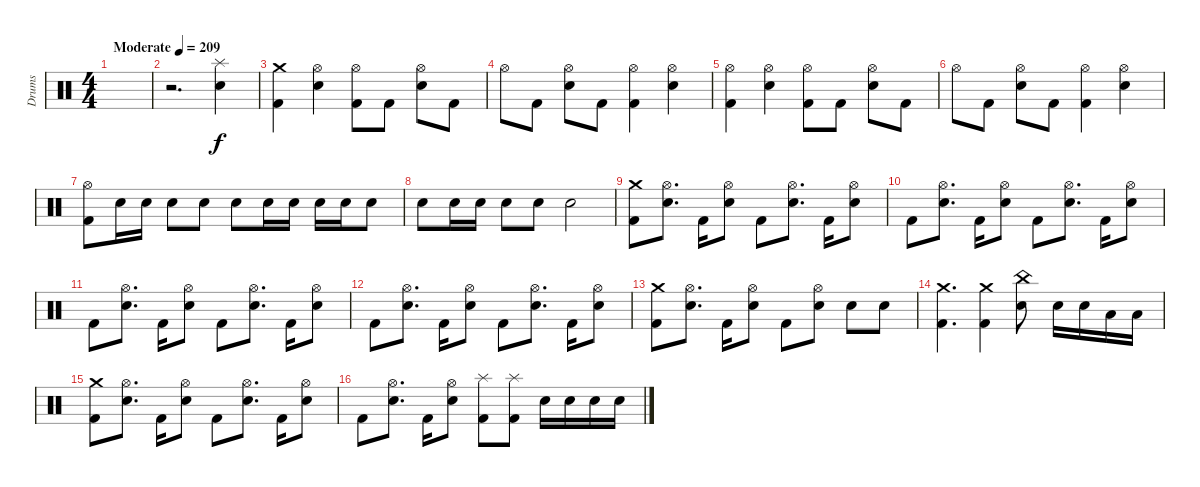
\track ("Drums" "Drums") {instrument percussion}
\staff {score}
\articulation defaults
\ts (4 4)
\tempo (209 "Moderate")
\clef neutral
\ks c
|
r.2{d} ("Splash (hit)" "Electric Snare (hit)").4 |
("Crash medium (hit)" "Kick (hit) 2").4 ("Hi-Hat (open)" "Electric Snare (hit)").4 ("Hi-Hat (open)" "Kick (hit) 2").8 "Kick (hit) 2".8 ("Hi-Hat (open)" "Electric Snare (hit)").8 "Kick (hit) 2".8 |
"Hi-Hat (open)".8 "Kick (hit) 2".8 ("Hi-Hat (open)" "Electric Snare (hit)").8 "Kick (hit) 2".8 ("Hi-Hat (open)" "Kick (hit) 2").4 ("Hi-Hat (open)" "Electric Snare (hit)").4 |
("Hi-Hat (open)" "Kick (hit) 2").4 ("Hi-Hat (open)" "Electric Snare (hit)").4 ("Hi-Hat (open)" "Kick (hit) 2").8 "Kick (hit) 2".8 ("Hi-Hat (open)" "Electric Snare (hit)").8 "Kick (hit) 2".8 |
"Hi-Hat (open)".8 "Kick (hit) 2".8 ("Hi-Hat (open)" "Electric Snare (hit)").8 "Kick (hit) 2".8 ("Hi-Hat (open)" "Kick (hit) 2").4 ("Hi-Hat (open)" "Electric Snare (hit)").4 |
("Hi-Hat (open)" "Kick (hit) 2").8 "Electric Snare (hit)".16 "Electric Snare (hit)".16 "Electric Snare (hit)".8 "Electric Snare (hit)".8 "Electric Snare (hit)".8 "Electric Snare (hit)".16 "Electric Snare (hit)".16 "Electric Snare (hit)".16 "Electric Snare (hit)".16 "Electric Snare (hit)".8 |
"Electric Snare (hit)".8 "Electric Snare (hit)".16 "Electric Snare (hit)".16 "Electric Snare (hit)".8 "Electric Snare (hit)".8 "Electric Snare (hit)".2 |
("Crash medium (hit)" "Kick (hit) 2").8 ("Hi-Hat (open)" "Electric Snare (hit)").8{d} "Kick (hit) 2".16 ("Hi-Hat (open)" "Electric Snare (hit)").8 "Kick (hit) 2".8 ("Hi-Hat (open)" "Electric Snare (hit)").8{d} "Kick (hit) 2".16 ("Hi-Hat (open)" "Electric Snare (hit)").8 |
"Kick (hit) 2".8 ("Hi-Hat (open)" "Electric Snare (hit)").8{d} "Kick (hit) 2".16 ("Hi-Hat (open)" "Electric Snare (hit)").8 "Kick (hit) 2".8 ("Hi-Hat (open)" "Electric Snare (hit)").8{d} "Kick (hit) 2".16 ("Hi-Hat (open)" "Electric Snare (hit)").8 |
"Kick (hit) 2".8 ("Hi-Hat (open)" "Electric Snare (hit)").8{d} "Kick (hit) 2".16 ("Hi-Hat (open)" "Electric Snare (hit)").8 "Kick (hit) 2".8 ("Hi-Hat (open)" "Electric Snare (hit)").8{d} "Kick (hit) 2".16 ("Hi-Hat (open)" "Electric Snare (hit)").8 |
"Kick (hit) 2".8 ("Hi-Hat (open)" "Electric Snare (hit)").8{d} "Kick (hit) 2".16 ("Hi-Hat (open)" "Electric Snare (hit)").8 "Kick (hit) 2".8 ("Hi-Hat (open)" "Electric Snare (hit)").8{d} "Kick (hit) 2".16 ("Hi-Hat (open)" "Electric Snare (hit)").8 |
("Crash medium (hit)" "Kick (hit) 2").8 ("Hi-Hat (open)" "Electric Snare (hit)").8{d} "Kick (hit) 2".16 ("Hi-Hat (open)" "Electric Snare (hit)").8 "Kick (hit) 2".8 ("Hi-Hat (open)" "Electric Snare (hit)").8 "Electric Snare (hit)".8 "Electric Snare (hit)".8 |
("Crash medium (hit)" "Kick (hit) 2").4{d} ("Crash medium (hit)" "Kick (hit) 2").4 ("China (hit)" "Electric Snare (hit)").8 "Electric Snare (hit)".16 "Electric Snare (hit)".16 "Low Tom (hit)".16 "Low Tom (hit)".16 |
("Crash medium (hit)" "Kick (hit) 2").8 ("Hi-Hat (open)" "Electric Snare (hit)").8{d} "Kick (hit) 2".16 ("Hi-Hat (open)" "Electric Snare (hit)").8 "Kick (hit) 2".8 ("Hi-Hat (open)" "Electric Snare (hit)").8{d} "Kick (hit) 2".16 ("Hi-Hat (open)" "Electric Snare (hit)").8 |
"Kick (hit) 2".8 ("Hi-Hat (open)" "Electric Snare (hit)").8{d} "Kick (hit) 2".16 ("Hi-Hat (open)" "Electric Snare (hit)").8 ("Splash (hit)" "Kick (hit) 2").8 ("Splash (hit)" "Kick (hit) 2").8 "Electric Snare (hit)".16 "Electric Snare (hit)".16 "Electric Snare (hit)".16 "Electric Snare (hit)".16
